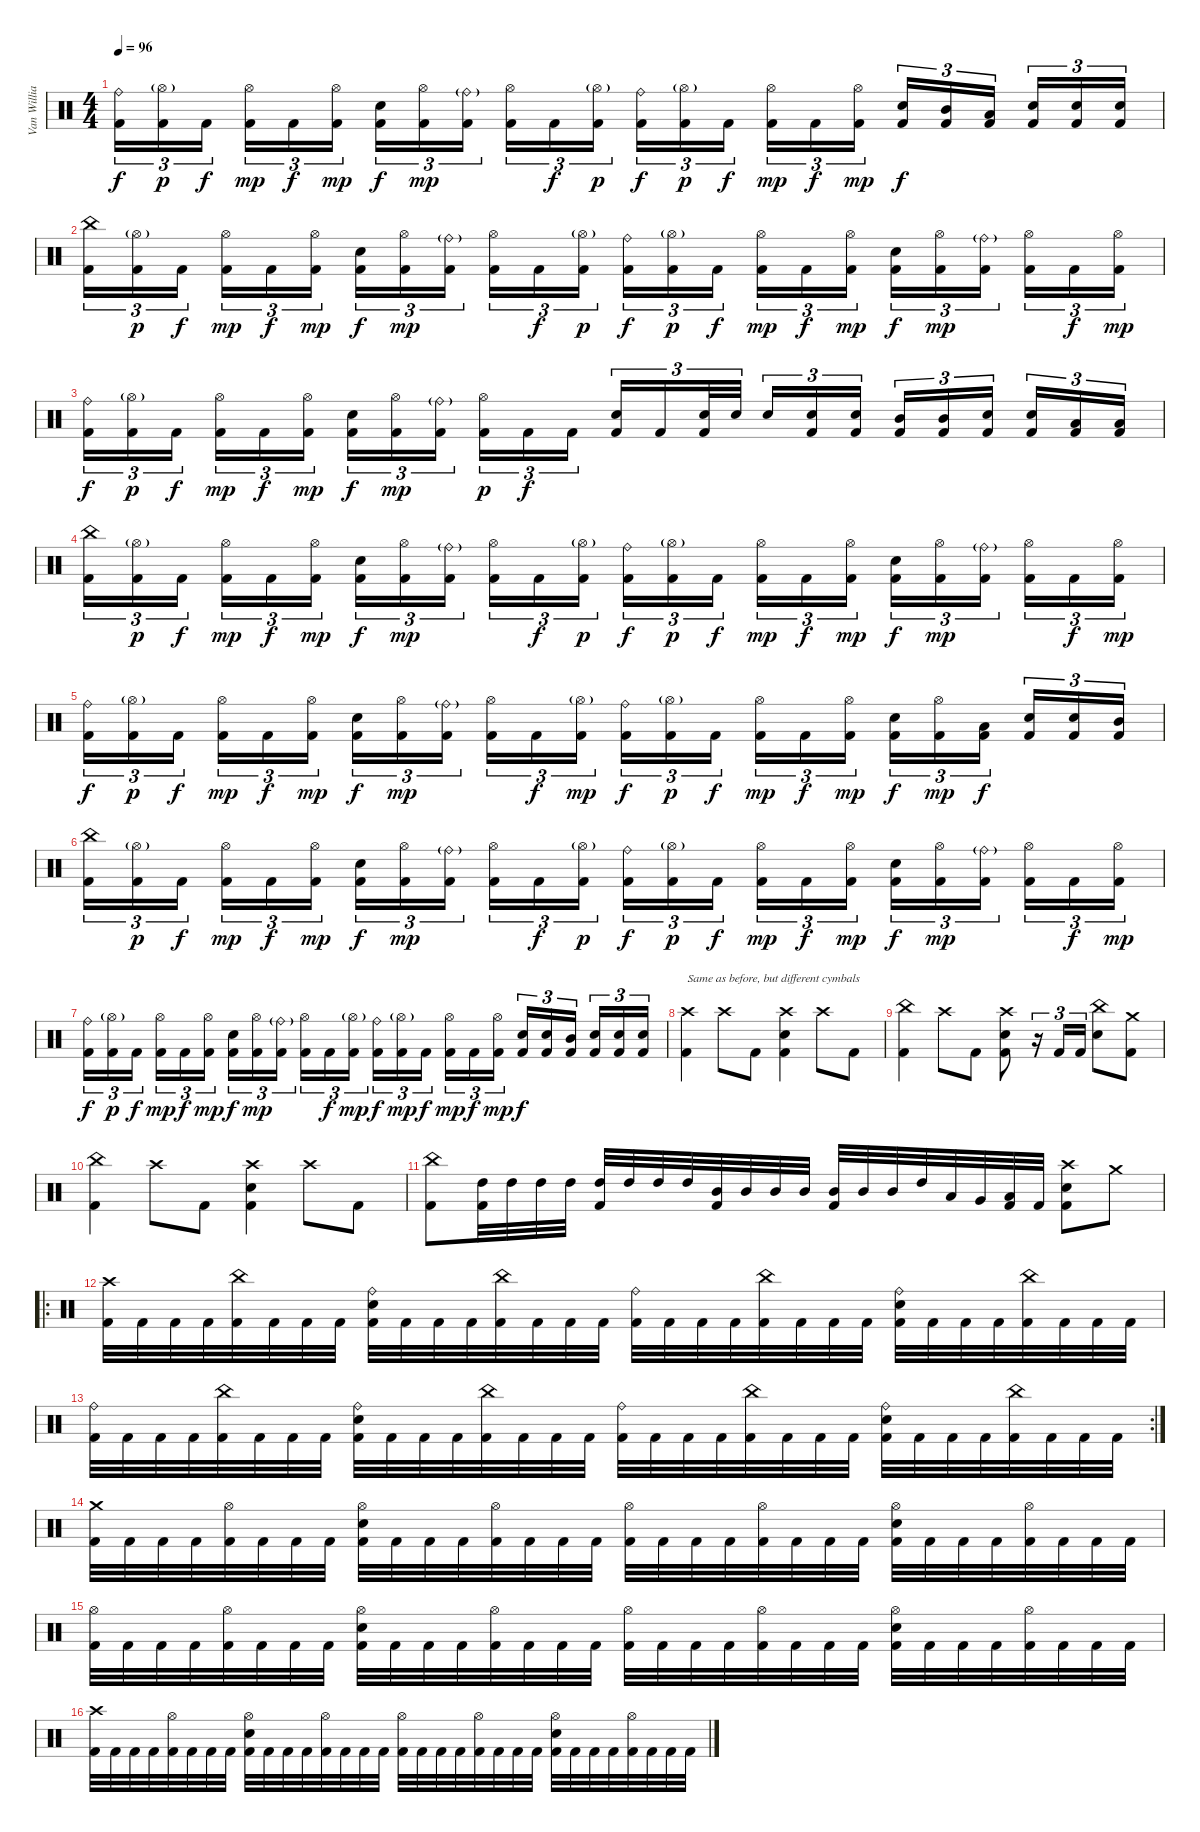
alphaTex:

\track ("Van Williams" "Van Willia") {instrument percussion}
\staff {score}
\articulation defaults
\ts (4 4)
\tempo 96
\clef neutral
\ks c
("Ride (bell)" "Kick (hit) 2").16{tu (3 2) dy f} ("Hi-Hat (open)"{g} "Kick (hit) 2").16{tu (3 2) dy p} "Kick (hit) 2".16{tu (3 2) dy f} ("Hi-Hat (open)" "Kick (hit) 2").16{tu (3 2) dy mp} "Kick (hit) 2".16{tu (3 2) dy f} ("Hi-Hat (open)" "Kick (hit) 2").16{tu (3 2) dy mp} ("Electric Snare (hit)" "Kick (hit) 2").16{tu (3 2) dy f} ("Hi-Hat (open)" "Kick (hit) 2").16{tu (3 2) dy mp} ("Ride (bell)"{g} "Kick (hit) 2").16{tu (3 2)} ("Hi-Hat (open)" "Kick (hit) 2").16{tu (3 2)} "Kick (hit) 2".16{tu (3 2) dy f} ("Hi-Hat (open)"{g} "Kick (hit) 2").16{tu (3 2) dy p} ("Ride (bell)" "Kick (hit) 2").16{tu (3 2) dy f} ("Hi-Hat (open)"{g} "Kick (hit) 2").16{tu (3 2) dy p} "Kick (hit) 2".16{tu (3 2) dy f} ("Hi-Hat (open)" "Kick (hit) 2").16{tu (3 2) dy mp} "Kick (hit) 2".16{tu (3 2) dy f} ("Hi-Hat (open)" "Kick (hit) 2").16{tu (3 2) dy mp} ("Electric Snare (hit)" "Kick (hit) 2").16{tu (3 2) dy f} ("Mid Tom (hit)" "Kick (hit) 2").16{tu (3 2)} ("Low Tom (hit)" "Kick (hit) 2").16{tu (3 2)} ("Electric Snare (hit)" "Kick (hit) 2").16{tu (3 2)} ("Electric Snare (hit)" "Kick (hit) 2").16{tu (3 2)} ("Electric Snare (hit)" "Kick (hit) 2").16{tu (3 2)} |
("China (hit)" "Kick (hit) 2").16{tu (3 2)} ("Hi-Hat (open)"{g} "Kick (hit) 2").16{tu (3 2) dy p} "Kick (hit) 2".16{tu (3 2) dy f} ("Hi-Hat (open)" "Kick (hit) 2").16{tu (3 2) dy mp} "Kick (hit) 2".16{tu (3 2) dy f} ("Hi-Hat (open)" "Kick (hit) 2").16{tu (3 2) dy mp} ("Electric Snare (hit)" "Kick (hit) 2").16{tu (3 2) dy f} ("Hi-Hat (open)" "Kick (hit) 2").16{tu (3 2) dy mp} ("Ride (bell)"{g} "Kick (hit) 2").16{tu (3 2)} ("Hi-Hat (open)" "Kick (hit) 2").16{tu (3 2)} "Kick (hit) 2".16{tu (3 2) dy f} ("Hi-Hat (open)"{g} "Kick (hit) 2").16{tu (3 2) dy p} ("Ride (bell)" "Kick (hit) 2").16{tu (3 2) dy f} ("Hi-Hat (open)"{g} "Kick (hit) 2").16{tu (3 2) dy p} "Kick (hit) 2".16{tu (3 2) dy f} ("Hi-Hat (open)" "Kick (hit) 2").16{tu (3 2) dy mp} "Kick (hit) 2".16{tu (3 2) dy f} ("Hi-Hat (open)" "Kick (hit) 2").16{tu (3 2) dy mp} ("Electric Snare (hit)" "Kick (hit) 2").16{tu (3 2) dy f} ("Hi-Hat (open)" "Kick (hit) 2").16{tu (3 2) dy mp} ("Ride (bell)"{g} "Kick (hit) 2").16{tu (3 2)} ("Hi-Hat (open)" "Kick (hit) 2").16{tu (3 2)} "Kick (hit) 2".16{tu (3 2) dy f} ("Hi-Hat (open)" "Kick (hit) 2").16{tu (3 2) dy mp} |
("Ride (bell)" "Kick (hit) 2").16{tu (3 2) dy f} ("Hi-Hat (open)"{g} "Kick (hit) 2").16{tu (3 2) dy p} "Kick (hit) 2".16{tu (3 2) dy f} ("Hi-Hat (open)" "Kick (hit) 2").16{tu (3 2) dy mp} "Kick (hit) 2".16{tu (3 2) dy f} ("Hi-Hat (open)" "Kick (hit) 2").16{tu (3 2) dy mp} ("Electric Snare (hit)" "Kick (hit) 2").16{tu (3 2) dy f} ("Hi-Hat (open)" "Kick (hit) 2").16{tu (3 2) dy mp} ("Ride (bell)"{g} "Kick (hit) 2").16{tu (3 2)} ("Hi-Hat (open)" "Kick (hit) 2").16{tu (3 2) dy p} "Kick (hit) 2".16{tu (3 2) dy f} "Kick (hit) 2".16{tu (3 2)} ("Electric Snare (hit)" "Kick (hit) 2").16{tu (3 2)} "Kick (hit) 2".16{tu (3 2)} ("Electric Snare (hit)" "Kick (hit) 2").32{tu (3 2)} "Electric Snare (hit)".32{tu (3 2)} "Electric Snare (hit)".16{tu (3 2)} ("Electric Snare (hit)" "Kick (hit) 2").16{tu (3 2)} ("Electric Snare (hit)" "Kick (hit) 2").16{tu (3 2)} ("Mid Tom (hit)" "Kick (hit) 2").16{tu (3 2)} ("Mid Tom (hit)" "Kick (hit) 2").16{tu (3 2)} ("Electric Snare (hit)" "Kick (hit) 2").16{tu (3 2)} ("Electric Snare (hit)" "Kick (hit) 2").16{tu (3 2)} ("Low Tom (hit)" "Kick (hit) 2").16{tu (3 2)} ("Low Tom (hit)" "Kick (hit) 2").16{tu (3 2)} |
("China (hit)" "Kick (hit) 2").16{tu (3 2)} ("Hi-Hat (open)"{g} "Kick (hit) 2").16{tu (3 2) dy p} "Kick (hit) 2".16{tu (3 2) dy f} ("Hi-Hat (open)" "Kick (hit) 2").16{tu (3 2) dy mp} "Kick (hit) 2".16{tu (3 2) dy f} ("Hi-Hat (open)" "Kick (hit) 2").16{tu (3 2) dy mp} ("Electric Snare (hit)" "Kick (hit) 2").16{tu (3 2) dy f} ("Hi-Hat (open)" "Kick (hit) 2").16{tu (3 2) dy mp} ("Ride (bell)"{g} "Kick (hit) 2").16{tu (3 2)} ("Hi-Hat (open)" "Kick (hit) 2").16{tu (3 2)} "Kick (hit) 2".16{tu (3 2) dy f} ("Hi-Hat (open)"{g} "Kick (hit) 2").16{tu (3 2) dy p} ("Ride (bell)" "Kick (hit) 2").16{tu (3 2) dy f} ("Hi-Hat (open)"{g} "Kick (hit) 2").16{tu (3 2) dy p} "Kick (hit) 2".16{tu (3 2) dy f} ("Hi-Hat (open)" "Kick (hit) 2").16{tu (3 2) dy mp} "Kick (hit) 2".16{tu (3 2) dy f} ("Hi-Hat (open)" "Kick (hit) 2").16{tu (3 2) dy mp} ("Electric Snare (hit)" "Kick (hit) 2").16{tu (3 2) dy f} ("Hi-Hat (open)" "Kick (hit) 2").16{tu (3 2) dy mp} ("Ride (bell)"{g} "Kick (hit) 2").16{tu (3 2)} ("Hi-Hat (open)" "Kick (hit) 2").16{tu (3 2)} "Kick (hit) 2".16{tu (3 2) dy f} ("Hi-Hat (open)" "Kick (hit) 2").16{tu (3 2) dy mp} |
("Ride (bell)" "Kick (hit) 2").16{tu (3 2) dy f} ("Hi-Hat (open)"{g} "Kick (hit) 2").16{tu (3 2) dy p} "Kick (hit) 2".16{tu (3 2) dy f} ("Hi-Hat (open)" "Kick (hit) 2").16{tu (3 2) dy mp} "Kick (hit) 2".16{tu (3 2) dy f} ("Hi-Hat (open)" "Kick (hit) 2").16{tu (3 2) dy mp} ("Electric Snare (hit)" "Kick (hit) 2").16{tu (3 2) dy f} ("Hi-Hat (open)" "Kick (hit) 2").16{tu (3 2) dy mp} ("Ride (bell)"{g} "Kick (hit) 2").16{tu (3 2)} ("Hi-Hat (open)" "Kick (hit) 2").16{tu (3 2)} "Kick (hit) 2".16{tu (3 2) dy f} ("Hi-Hat (open)"{g} "Kick (hit) 2").16{tu (3 2) dy mp} ("Ride (bell)" "Kick (hit) 2").16{tu (3 2) dy f} ("Hi-Hat (open)"{g} "Kick (hit) 2").16{tu (3 2) dy p} "Kick (hit) 2".16{tu (3 2) dy f} ("Hi-Hat (open)" "Kick (hit) 2").16{tu (3 2) dy mp} "Kick (hit) 2".16{tu (3 2) dy f} ("Hi-Hat (open)" "Kick (hit) 2").16{tu (3 2) dy mp} ("Electric Snare (hit)" "Kick (hit) 2").16{tu (3 2) dy f} ("Hi-Hat (open)" "Kick (hit) 2").16{tu (3 2) dy mp} ("Low Tom (hit)" "Kick (hit) 2").16{tu (3 2) dy f} ("Electric Snare (hit)" "Kick (hit) 2").16{tu (3 2)} ("Electric Snare (hit)" "Kick (hit) 2").16{tu (3 2)} ("Mid Tom (hit)" "Kick (hit) 2").16{tu (3 2)} |
("China (hit)" "Kick (hit) 2").16{tu (3 2)} ("Hi-Hat (open)"{g} "Kick (hit) 2").16{tu (3 2) dy p} "Kick (hit) 2".16{tu (3 2) dy f} ("Hi-Hat (open)" "Kick (hit) 2").16{tu (3 2) dy mp} "Kick (hit) 2".16{tu (3 2) dy f} ("Hi-Hat (open)" "Kick (hit) 2").16{tu (3 2) dy mp} ("Electric Snare (hit)" "Kick (hit) 2").16{tu (3 2) dy f} ("Hi-Hat (open)" "Kick (hit) 2").16{tu (3 2) dy mp} ("Ride (bell)"{g} "Kick (hit) 2").16{tu (3 2)} ("Hi-Hat (open)" "Kick (hit) 2").16{tu (3 2)} "Kick (hit) 2".16{tu (3 2) dy f} ("Hi-Hat (open)"{g} "Kick (hit) 2").16{tu (3 2) dy p} ("Ride (bell)" "Kick (hit) 2").16{tu (3 2) dy f} ("Hi-Hat (open)"{g} "Kick (hit) 2").16{tu (3 2) dy p} "Kick (hit) 2".16{tu (3 2) dy f} ("Hi-Hat (open)" "Kick (hit) 2").16{tu (3 2) dy mp} "Kick (hit) 2".16{tu (3 2) dy f} ("Hi-Hat (open)" "Kick (hit) 2").16{tu (3 2) dy mp} ("Electric Snare (hit)" "Kick (hit) 2").16{tu (3 2) dy f} ("Hi-Hat (open)" "Kick (hit) 2").16{tu (3 2) dy mp} ("Ride (bell)"{g} "Kick (hit) 2").16{tu (3 2)} ("Hi-Hat (open)" "Kick (hit) 2").16{tu (3 2)} "Kick (hit) 2".16{tu (3 2) dy f} ("Hi-Hat (open)" "Kick (hit) 2").16{tu (3 2) dy mp} |
("Ride (bell)" "Kick (hit) 2").16{tu (3 2) dy f} ("Hi-Hat (open)"{g} "Kick (hit) 2").16{tu (3 2) dy p} "Kick (hit) 2".16{tu (3 2) dy f} ("Hi-Hat (open)" "Kick (hit) 2").16{tu (3 2) dy mp} "Kick (hit) 2".16{tu (3 2) dy f} ("Hi-Hat (open)" "Kick (hit) 2").16{tu (3 2) dy mp} ("Electric Snare (hit)" "Kick (hit) 2").16{tu (3 2) dy f} ("Hi-Hat (open)" "Kick (hit) 2").16{tu (3 2) dy mp} ("Ride (bell)"{g} "Kick (hit) 2").16{tu (3 2)} ("Hi-Hat (open)" "Kick (hit) 2").16{tu (3 2)} "Kick (hit) 2".16{tu (3 2) dy f} ("Hi-Hat (open)"{g} "Kick (hit) 2").16{tu (3 2) dy mp} ("Ride (bell)" "Kick (hit) 2").16{tu (3 2) dy f} ("Hi-Hat (open)"{g} "Kick (hit) 2").16{tu (3 2) dy mp} "Kick (hit) 2".16{tu (3 2) dy f} ("Hi-Hat (open)" "Kick (hit) 2").16{tu (3 2) dy mp} "Kick (hit) 2".16{tu (3 2) dy f} ("Hi-Hat (open)" "Kick (hit) 2").16{tu (3 2) dy mp} ("Electric Snare (hit)" "Kick (hit) 2").16{tu (3 2) dy f} ("Electric Snare (hit)" "Kick (hit) 2").16{tu (3 2)} ("Mid Tom (hit)" "Kick (hit) 2").16{tu (3 2)} ("Electric Snare (hit)" "Kick (hit) 2").16{tu (3 2)} ("Electric Snare (hit)" "Kick (hit) 2").16{tu (3 2)} ("Electric Snare (hit)" "Kick (hit) 2").16{tu (3 2)} |
\section ("" "")
("Crash high (hit)" "Kick (hit) 2").4{txt "Same as before, but different cymbals"} "Crash high (hit)".8 "Kick (hit) 2".8 ("Crash high (hit)" "Electric Snare (hit)" "Kick (hit) 2").4 "Crash high (hit)".8 "Kick (hit) 2".8 |
("China (hit)" "Kick (hit) 2").4 "Crash high (hit)".8 "Kick (hit) 2".8 ("Crash high (hit)" "Electric Snare (hit)" "Kick (hit) 2").8 r.16{tu (3 2)} "Kick (hit) 2".16{tu (3 2)} "Kick (hit) 2".16{tu (3 2)} ("China (hit)" "Electric Snare (hit)").8 ("Crash medium (hit)" "Kick (hit) 2").8 |
("China (hit)" "Kick (hit) 2").4 "Crash high (hit)".8 "Kick (hit) 2".8 ("Crash high (hit)" "Electric Snare (hit)" "Kick (hit) 2").4 "Crash high (hit)".8 "Kick (hit) 2".8 |
("China (hit)" "Kick (hit) 2").8 ("High Tom (hit)" "Kick (hit) 2").32 "High Tom (hit)".32 "High Tom (hit)".32 "High Tom (hit)".32 ("High Tom (hit)" "Kick (hit) 2").32 "High Tom (hit)".32 "High Tom (hit)".32 "High Tom (hit)".32 ("Mid Tom (hit)" "Kick (hit) 2").32 "Mid Tom (hit)".32 "Mid Tom (hit)".32 "Mid Tom (hit)".32 ("Mid Tom (hit)" "Kick (hit) 2").32 "Mid Tom (hit)".32 "Mid Tom (hit)".32 "High Tom (hit)".32 "Low Tom (hit)".32 "Very Low Tom (hit)".32 ("Low Floor Tom (hit)" "Kick (hit) 2").32 "Kick (hit) 2".32 ("Crash high (hit)" "Electric Snare (hit)" "Kick (hit) 2").8 "Crash medium (hit)".8 |
\ro
\section ("" "")
("Crash high (hit)" "Kick (hit) 2").32 "Kick (hit) 2".32 "Kick (hit) 2".32 "Kick (hit) 2".32 ("China (hit)" "Kick (hit) 2").32 "Kick (hit) 2".32 "Kick (hit) 2".32 "Kick (hit) 2".32 ("Ride (bell)" "Electric Snare (hit)" "Kick (hit) 2").32 "Kick (hit) 2".32 "Kick (hit) 2".32 "Kick (hit) 2".32 ("China (hit)" "Kick (hit) 2").32 "Kick (hit) 2".32 "Kick (hit) 2".32 "Kick (hit) 2".32 ("Ride (bell)" "Kick (hit) 2").32 "Kick (hit) 2".32 "Kick (hit) 2".32 "Kick (hit) 2".32 ("China (hit)" "Kick (hit) 2").32 "Kick (hit) 2".32 "Kick (hit) 2".32 "Kick (hit) 2".32 ("Ride (bell)" "Electric Snare (hit)" "Kick (hit) 2").32 "Kick (hit) 2".32 "Kick (hit) 2".32 "Kick (hit) 2".32 ("China (hit)" "Kick (hit) 2").32 "Kick (hit) 2".32 "Kick (hit) 2".32 "Kick (hit) 2".32 |
\rc 2
("Ride (bell)" "Kick (hit) 2").32 "Kick (hit) 2".32 "Kick (hit) 2".32 "Kick (hit) 2".32 ("China (hit)" "Kick (hit) 2").32 "Kick (hit) 2".32 "Kick (hit) 2".32 "Kick (hit) 2".32 ("Ride (bell)" "Electric Snare (hit)" "Kick (hit) 2").32 "Kick (hit) 2".32 "Kick (hit) 2".32 "Kick (hit) 2".32 ("China (hit)" "Kick (hit) 2").32 "Kick (hit) 2".32 "Kick (hit) 2".32 "Kick (hit) 2".32 ("Ride (bell)" "Kick (hit) 2").32 "Kick (hit) 2".32 "Kick (hit) 2".32 "Kick (hit) 2".32 ("China (hit)" "Kick (hit) 2").32 "Kick (hit) 2".32 "Kick (hit) 2".32 "Kick (hit) 2".32 ("Ride (bell)" "Electric Snare (hit)" "Kick (hit) 2").32 "Kick (hit) 2".32 "Kick (hit) 2".32 "Kick (hit) 2".32 ("China (hit)" "Kick (hit) 2").32 "Kick (hit) 2".32 "Kick (hit) 2".32 "Kick (hit) 2".32 |
("Crash medium (hit)" "Kick (hit) 2").32 "Kick (hit) 2".32 "Kick (hit) 2".32 "Kick (hit) 2".32 ("Hi-Hat (open)" "Kick (hit) 2").32 "Kick (hit) 2".32 "Kick (hit) 2".32 "Kick (hit) 2".32 ("Hi-Hat (open)" "Electric Snare (hit)" "Kick (hit) 2").32 "Kick (hit) 2".32 "Kick (hit) 2".32 "Kick (hit) 2".32 ("Hi-Hat (open)" "Kick (hit) 2").32 "Kick (hit) 2".32 "Kick (hit) 2".32 "Kick (hit) 2".32 ("Hi-Hat (open)" "Kick (hit) 2").32 "Kick (hit) 2".32 "Kick (hit) 2".32 "Kick (hit) 2".32 ("Hi-Hat (open)" "Kick (hit) 2").32 "Kick (hit) 2".32 "Kick (hit) 2".32 "Kick (hit) 2".32 ("Hi-Hat (open)" "Electric Snare (hit)" "Kick (hit) 2").32 "Kick (hit) 2".32 "Kick (hit) 2".32 "Kick (hit) 2".32 ("Hi-Hat (open)" "Kick (hit) 2").32 "Kick (hit) 2".32 "Kick (hit) 2".32 "Kick (hit) 2".32 |
("Hi-Hat (open)" "Kick (hit) 2").32 "Kick (hit) 2".32 "Kick (hit) 2".32 "Kick (hit) 2".32 ("Hi-Hat (open)" "Kick (hit) 2").32 "Kick (hit) 2".32 "Kick (hit) 2".32 "Kick (hit) 2".32 ("Hi-Hat (open)" "Electric Snare (hit)" "Kick (hit) 2").32 "Kick (hit) 2".32 "Kick (hit) 2".32 "Kick (hit) 2".32 ("Hi-Hat (open)" "Kick (hit) 2").32 "Kick (hit) 2".32 "Kick (hit) 2".32 "Kick (hit) 2".32 ("Hi-Hat (open)" "Kick (hit) 2").32 "Kick (hit) 2".32 "Kick (hit) 2".32 "Kick (hit) 2".32 ("Hi-Hat (open)" "Kick (hit) 2").32 "Kick (hit) 2".32 "Kick (hit) 2".32 "Kick (hit) 2".32 ("Hi-Hat (open)" "Electric Snare (hit)" "Kick (hit) 2").32 "Kick (hit) 2".32 "Kick (hit) 2".32 "Kick (hit) 2".32 ("Hi-Hat (open)" "Kick (hit) 2").32 "Kick (hit) 2".32 "Kick (hit) 2".32 "Kick (hit) 2".32 |
("Crash high (hit)" "Kick (hit) 2").32 "Kick (hit) 2".32 "Kick (hit) 2".32 "Kick (hit) 2".32 ("Hi-Hat (open)" "Kick (hit) 2").32 "Kick (hit) 2".32 "Kick (hit) 2".32 "Kick (hit) 2".32 ("Hi-Hat (open)" "Electric Snare (hit)" "Kick (hit) 2").32 "Kick (hit) 2".32 "Kick (hit) 2".32 "Kick (hit) 2".32 ("Hi-Hat (open)" "Kick (hit) 2").32 "Kick (hit) 2".32 "Kick (hit) 2".32 "Kick (hit) 2".32 ("Hi-Hat (open)" "Kick (hit) 2").32 "Kick (hit) 2".32 "Kick (hit) 2".32 "Kick (hit) 2".32 ("Hi-Hat (open)" "Kick (hit) 2").32 "Kick (hit) 2".32 "Kick (hit) 2".32 "Kick (hit) 2".32 ("Hi-Hat (open)" "Electric Snare (hit)" "Kick (hit) 2").32 "Kick (hit) 2".32 "Kick (hit) 2".32 "Kick (hit) 2".32 ("Hi-Hat (open)" "Kick (hit) 2").32 "Kick (hit) 2".32 "Kick (hit) 2".32 "Kick (hit) 2".32
